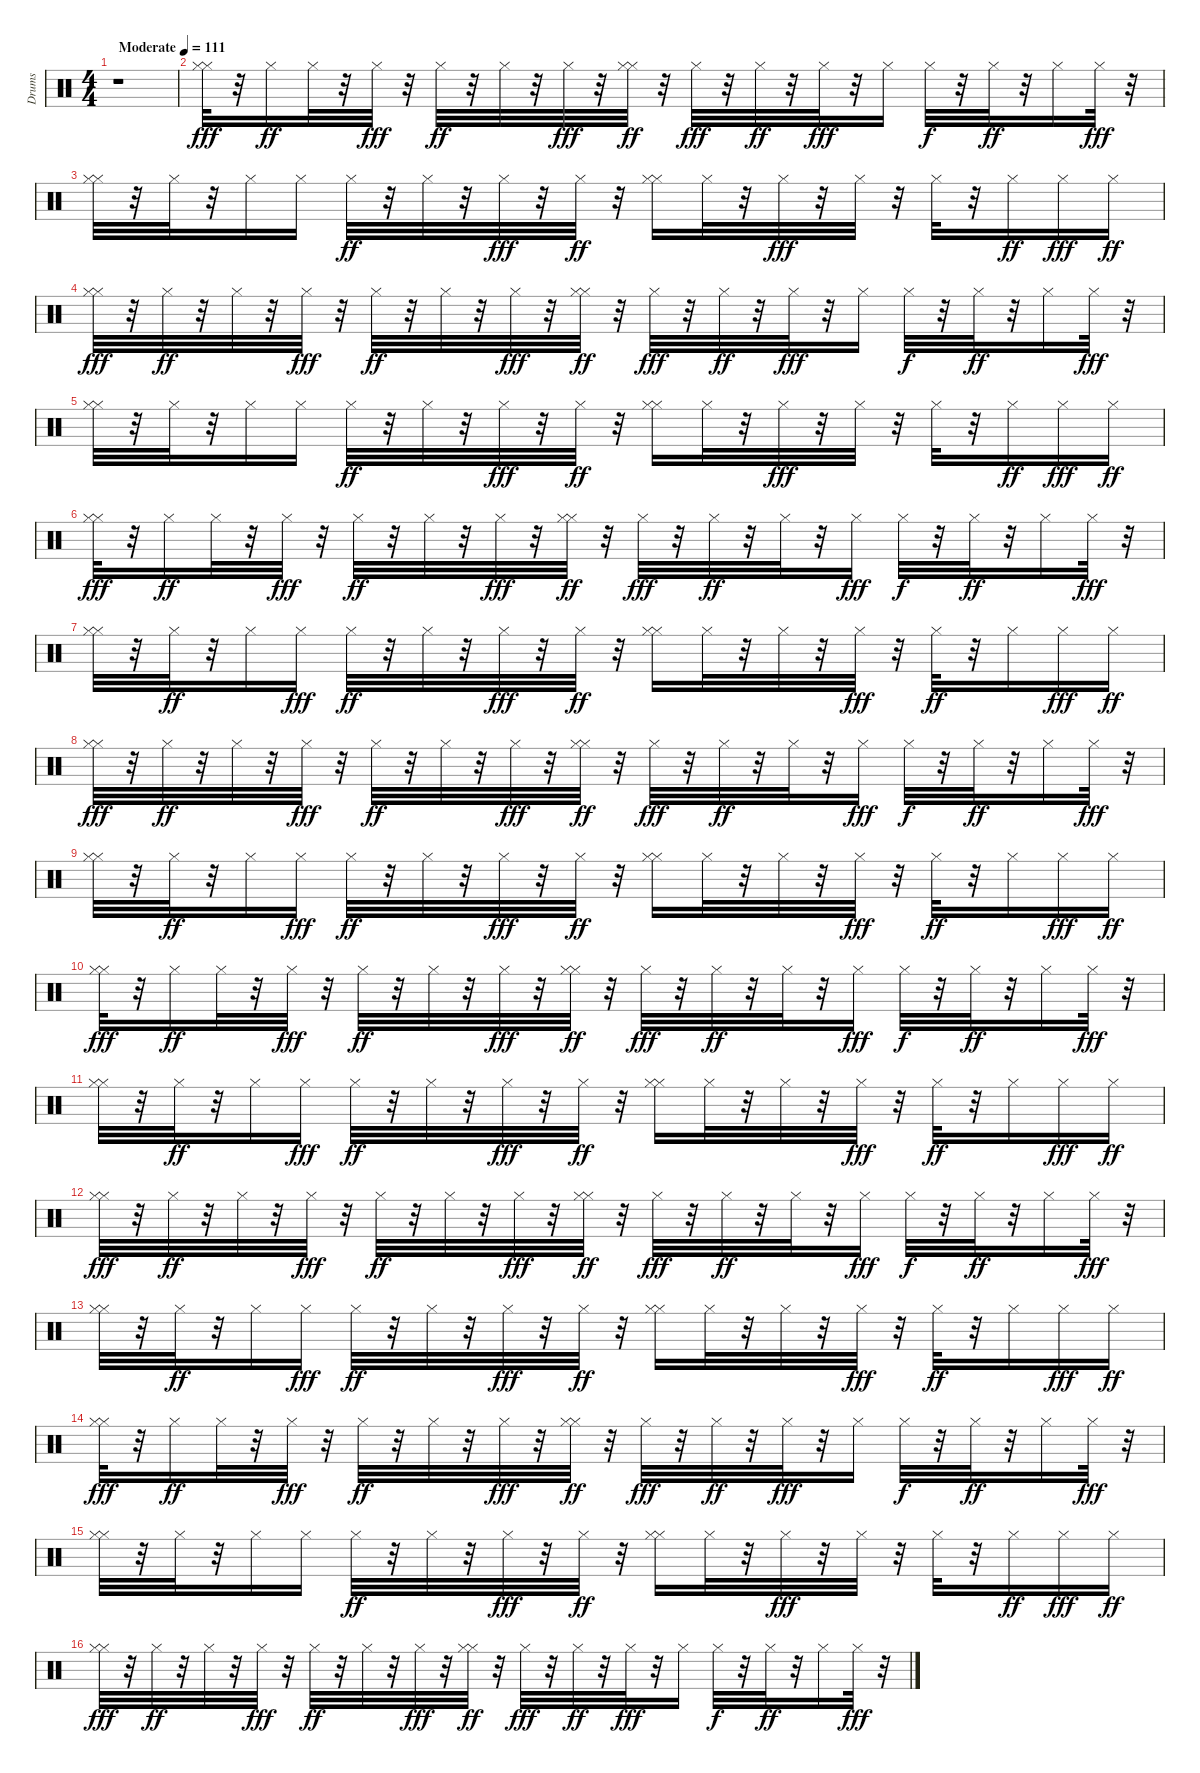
\track ("Drums" "Drums") {instrument percussion}
\staff {score}
\articulation defaults
\ts (4 4)
\tempo (111 "Moderate")
\clef neutral
\ks c
r.1{dy fff} |
("Hi-Hat (closed)" "Hi-Hat (closed)").32 r.32 "Hi-Hat (closed)".16{dy ff} "Hi-Hat (closed)".32 r.32 "Hi-Hat (closed)".32{dy fff} r.32 "Hi-Hat (closed)".32{dy ff} r.32 "Hi-Hat (closed)".32 r.32 "Hi-Hat (closed)".32{dy fff} r.32 ("Hi-Hat (closed)" "Hi-Hat (closed)").32{dy ff} r.32 "Hi-Hat (closed)".32{dy fff} r.32 "Hi-Hat (closed)".32{dy ff} r.32 "Hi-Hat (closed)".32{dy fff} r.32 "Hi-Hat (closed)".16 "Hi-Hat (closed)".32{dy f} r.32 "Hi-Hat (closed)".32{dy ff} r.32 "Hi-Hat (closed)".16 "Hi-Hat (closed)".32{dy fff} r.32 |
("Hi-Hat (closed)" "Hi-Hat (closed)").32 r.32 "Hi-Hat (closed)".32 r.32 "Hi-Hat (closed)".16 "Hi-Hat (closed)".16 "Hi-Hat (closed)".32{dy ff} r.32 "Hi-Hat (closed)".32 r.32 "Hi-Hat (closed)".32{dy fff} r.32 "Hi-Hat (closed)".32{dy ff} r.32 ("Hi-Hat (closed)" "Hi-Hat (closed)").16 "Hi-Hat (closed)".32 r.32 "Hi-Hat (closed)".32{dy fff} r.32 "Hi-Hat (closed)".32 r.32 "Hi-Hat (closed)".32 r.32 "Hi-Hat (closed)".16{dy ff} "Hi-Hat (closed)".16{dy fff} "Hi-Hat (closed)".16{dy ff} |
("Hi-Hat (closed)" "Hi-Hat (closed)").32{dy fff} r.32 "Hi-Hat (closed)".32{dy ff} r.32 "Hi-Hat (closed)".32 r.32 "Hi-Hat (closed)".32{dy fff} r.32 "Hi-Hat (closed)".32{dy ff} r.32 "Hi-Hat (closed)".32 r.32 "Hi-Hat (closed)".32{dy fff} r.32 ("Hi-Hat (closed)" "Hi-Hat (closed)").32{dy ff} r.32 "Hi-Hat (closed)".32{dy fff} r.32 "Hi-Hat (closed)".32{dy ff} r.32 "Hi-Hat (closed)".32{dy fff} r.32 "Hi-Hat (closed)".16 "Hi-Hat (closed)".32{dy f} r.32 "Hi-Hat (closed)".32{dy ff} r.32 "Hi-Hat (closed)".16 "Hi-Hat (closed)".32{dy fff} r.32 |
("Hi-Hat (closed)" "Hi-Hat (closed)").32 r.32 "Hi-Hat (closed)".32 r.32 "Hi-Hat (closed)".16 "Hi-Hat (closed)".16 "Hi-Hat (closed)".32{dy ff} r.32 "Hi-Hat (closed)".32 r.32 "Hi-Hat (closed)".32{dy fff} r.32 "Hi-Hat (closed)".32{dy ff} r.32 ("Hi-Hat (closed)" "Hi-Hat (closed)").16 "Hi-Hat (closed)".32 r.32 "Hi-Hat (closed)".32{dy fff} r.32 "Hi-Hat (closed)".32 r.32 "Hi-Hat (closed)".32 r.32 "Hi-Hat (closed)".16{dy ff} "Hi-Hat (closed)".16{dy fff} "Hi-Hat (closed)".16{dy ff} |
("Hi-Hat (closed)" "Hi-Hat (closed)").32{dy fff} r.32 "Hi-Hat (closed)".16{dy ff} "Hi-Hat (closed)".32 r.32 "Hi-Hat (closed)".32{dy fff} r.32 "Hi-Hat (closed)".32{dy ff} r.32 "Hi-Hat (closed)".32 r.32 "Hi-Hat (closed)".32{dy fff} r.32 ("Hi-Hat (closed)" "Hi-Hat (closed)").32{dy ff} r.32 "Hi-Hat (closed)".32{dy fff} r.32 "Hi-Hat (closed)".32{dy ff} r.32 "Hi-Hat (closed)".32 r.32 "Hi-Hat (closed)".16{dy fff} "Hi-Hat (closed)".32{dy f} r.32 "Hi-Hat (closed)".32{dy ff} r.32 "Hi-Hat (closed)".16 "Hi-Hat (closed)".32{dy fff} r.32 |
("Hi-Hat (closed)" "Hi-Hat (closed)").32 r.32 "Hi-Hat (closed)".32{dy ff} r.32 "Hi-Hat (closed)".16 "Hi-Hat (closed)".16{dy fff} "Hi-Hat (closed)".32{dy ff} r.32 "Hi-Hat (closed)".32 r.32 "Hi-Hat (closed)".32{dy fff} r.32 "Hi-Hat (closed)".32{dy ff} r.32 ("Hi-Hat (closed)" "Hi-Hat (closed)").16 "Hi-Hat (closed)".32 r.32 "Hi-Hat (closed)".32 r.32 "Hi-Hat (closed)".32{dy fff} r.32 "Hi-Hat (closed)".32{dy ff} r.32 "Hi-Hat (closed)".16 "Hi-Hat (closed)".16{dy fff} "Hi-Hat (closed)".16{dy ff} |
("Hi-Hat (closed)" "Hi-Hat (closed)").32{dy fff} r.32 "Hi-Hat (closed)".32{dy ff} r.32 "Hi-Hat (closed)".32 r.32 "Hi-Hat (closed)".32{dy fff} r.32 "Hi-Hat (closed)".32{dy ff} r.32 "Hi-Hat (closed)".32 r.32 "Hi-Hat (closed)".32{dy fff} r.32 ("Hi-Hat (closed)" "Hi-Hat (closed)").32{dy ff} r.32 "Hi-Hat (closed)".32{dy fff} r.32 "Hi-Hat (closed)".32{dy ff} r.32 "Hi-Hat (closed)".32 r.32 "Hi-Hat (closed)".16{dy fff} "Hi-Hat (closed)".32{dy f} r.32 "Hi-Hat (closed)".32{dy ff} r.32 "Hi-Hat (closed)".16 "Hi-Hat (closed)".32{dy fff} r.32 |
("Hi-Hat (closed)" "Hi-Hat (closed)").32 r.32 "Hi-Hat (closed)".32{dy ff} r.32 "Hi-Hat (closed)".16 "Hi-Hat (closed)".16{dy fff} "Hi-Hat (closed)".32{dy ff} r.32 "Hi-Hat (closed)".32 r.32 "Hi-Hat (closed)".32{dy fff} r.32 "Hi-Hat (closed)".32{dy ff} r.32 ("Hi-Hat (closed)" "Hi-Hat (closed)").16 "Hi-Hat (closed)".32 r.32 "Hi-Hat (closed)".32 r.32 "Hi-Hat (closed)".32{dy fff} r.32 "Hi-Hat (closed)".32{dy ff} r.32 "Hi-Hat (closed)".16 "Hi-Hat (closed)".16{dy fff} "Hi-Hat (closed)".16{dy ff} |
("Hi-Hat (closed)" "Hi-Hat (closed)").32{dy fff} r.32 "Hi-Hat (closed)".16{dy ff} "Hi-Hat (closed)".32 r.32 "Hi-Hat (closed)".32{dy fff} r.32 "Hi-Hat (closed)".32{dy ff} r.32 "Hi-Hat (closed)".32 r.32 "Hi-Hat (closed)".32{dy fff} r.32 ("Hi-Hat (closed)" "Hi-Hat (closed)").32{dy ff} r.32 "Hi-Hat (closed)".32{dy fff} r.32 "Hi-Hat (closed)".32{dy ff} r.32 "Hi-Hat (closed)".32 r.32 "Hi-Hat (closed)".16{dy fff} "Hi-Hat (closed)".32{dy f} r.32 "Hi-Hat (closed)".32{dy ff} r.32 "Hi-Hat (closed)".16 "Hi-Hat (closed)".32{dy fff} r.32 |
("Hi-Hat (closed)" "Hi-Hat (closed)").32 r.32 "Hi-Hat (closed)".32{dy ff} r.32 "Hi-Hat (closed)".16 "Hi-Hat (closed)".16{dy fff} "Hi-Hat (closed)".32{dy ff} r.32 "Hi-Hat (closed)".32 r.32 "Hi-Hat (closed)".32{dy fff} r.32 "Hi-Hat (closed)".32{dy ff} r.32 ("Hi-Hat (closed)" "Hi-Hat (closed)").16 "Hi-Hat (closed)".32 r.32 "Hi-Hat (closed)".32 r.32 "Hi-Hat (closed)".32{dy fff} r.32 "Hi-Hat (closed)".32{dy ff} r.32 "Hi-Hat (closed)".16 "Hi-Hat (closed)".16{dy fff} "Hi-Hat (closed)".16{dy ff} |
("Hi-Hat (closed)" "Hi-Hat (closed)").32{dy fff} r.32 "Hi-Hat (closed)".32{dy ff} r.32 "Hi-Hat (closed)".32 r.32 "Hi-Hat (closed)".32{dy fff} r.32 "Hi-Hat (closed)".32{dy ff} r.32 "Hi-Hat (closed)".32 r.32 "Hi-Hat (closed)".32{dy fff} r.32 ("Hi-Hat (closed)" "Hi-Hat (closed)").32{dy ff} r.32 "Hi-Hat (closed)".32{dy fff} r.32 "Hi-Hat (closed)".32{dy ff} r.32 "Hi-Hat (closed)".32 r.32 "Hi-Hat (closed)".16{dy fff} "Hi-Hat (closed)".32{dy f} r.32 "Hi-Hat (closed)".32{dy ff} r.32 "Hi-Hat (closed)".16 "Hi-Hat (closed)".32{dy fff} r.32 |
("Hi-Hat (closed)" "Hi-Hat (closed)").32 r.32 "Hi-Hat (closed)".32{dy ff} r.32 "Hi-Hat (closed)".16 "Hi-Hat (closed)".16{dy fff} "Hi-Hat (closed)".32{dy ff} r.32 "Hi-Hat (closed)".32 r.32 "Hi-Hat (closed)".32{dy fff} r.32 "Hi-Hat (closed)".32{dy ff} r.32 ("Hi-Hat (closed)" "Hi-Hat (closed)").16 "Hi-Hat (closed)".32 r.32 "Hi-Hat (closed)".32 r.32 "Hi-Hat (closed)".32{dy fff} r.32 "Hi-Hat (closed)".32{dy ff} r.32 "Hi-Hat (closed)".16 "Hi-Hat (closed)".16{dy fff} "Hi-Hat (closed)".16{dy ff} |
("Hi-Hat (closed)" "Hi-Hat (closed)").32{dy fff} r.32 "Hi-Hat (closed)".16{dy ff} "Hi-Hat (closed)".32 r.32 "Hi-Hat (closed)".32{dy fff} r.32 "Hi-Hat (closed)".32{dy ff} r.32 "Hi-Hat (closed)".32 r.32 "Hi-Hat (closed)".32{dy fff} r.32 ("Hi-Hat (closed)" "Hi-Hat (closed)").32{dy ff} r.32 "Hi-Hat (closed)".32{dy fff} r.32 "Hi-Hat (closed)".32{dy ff} r.32 "Hi-Hat (closed)".32{dy fff} r.32 "Hi-Hat (closed)".16 "Hi-Hat (closed)".32{dy f} r.32 "Hi-Hat (closed)".32{dy ff} r.32 "Hi-Hat (closed)".16 "Hi-Hat (closed)".32{dy fff} r.32 |
("Hi-Hat (closed)" "Hi-Hat (closed)").32 r.32 "Hi-Hat (closed)".32 r.32 "Hi-Hat (closed)".16 "Hi-Hat (closed)".16 "Hi-Hat (closed)".32{dy ff} r.32 "Hi-Hat (closed)".32 r.32 "Hi-Hat (closed)".32{dy fff} r.32 "Hi-Hat (closed)".32{dy ff} r.32 ("Hi-Hat (closed)" "Hi-Hat (closed)").16 "Hi-Hat (closed)".32 r.32 "Hi-Hat (closed)".32{dy fff} r.32 "Hi-Hat (closed)".32 r.32 "Hi-Hat (closed)".32 r.32 "Hi-Hat (closed)".16{dy ff} "Hi-Hat (closed)".16{dy fff} "Hi-Hat (closed)".16{dy ff} |
("Hi-Hat (closed)" "Hi-Hat (closed)").32{dy fff} r.32 "Hi-Hat (closed)".32{dy ff} r.32 "Hi-Hat (closed)".32 r.32 "Hi-Hat (closed)".32{dy fff} r.32 "Hi-Hat (closed)".32{dy ff} r.32 "Hi-Hat (closed)".32 r.32 "Hi-Hat (closed)".32{dy fff} r.32 ("Hi-Hat (closed)" "Hi-Hat (closed)").32{dy ff} r.32 "Hi-Hat (closed)".32{dy fff} r.32 "Hi-Hat (closed)".32{dy ff} r.32 "Hi-Hat (closed)".32{dy fff} r.32 "Hi-Hat (closed)".16 "Hi-Hat (closed)".32{dy f} r.32 "Hi-Hat (closed)".32{dy ff} r.32 "Hi-Hat (closed)".16 "Hi-Hat (closed)".32{dy fff} r.32
